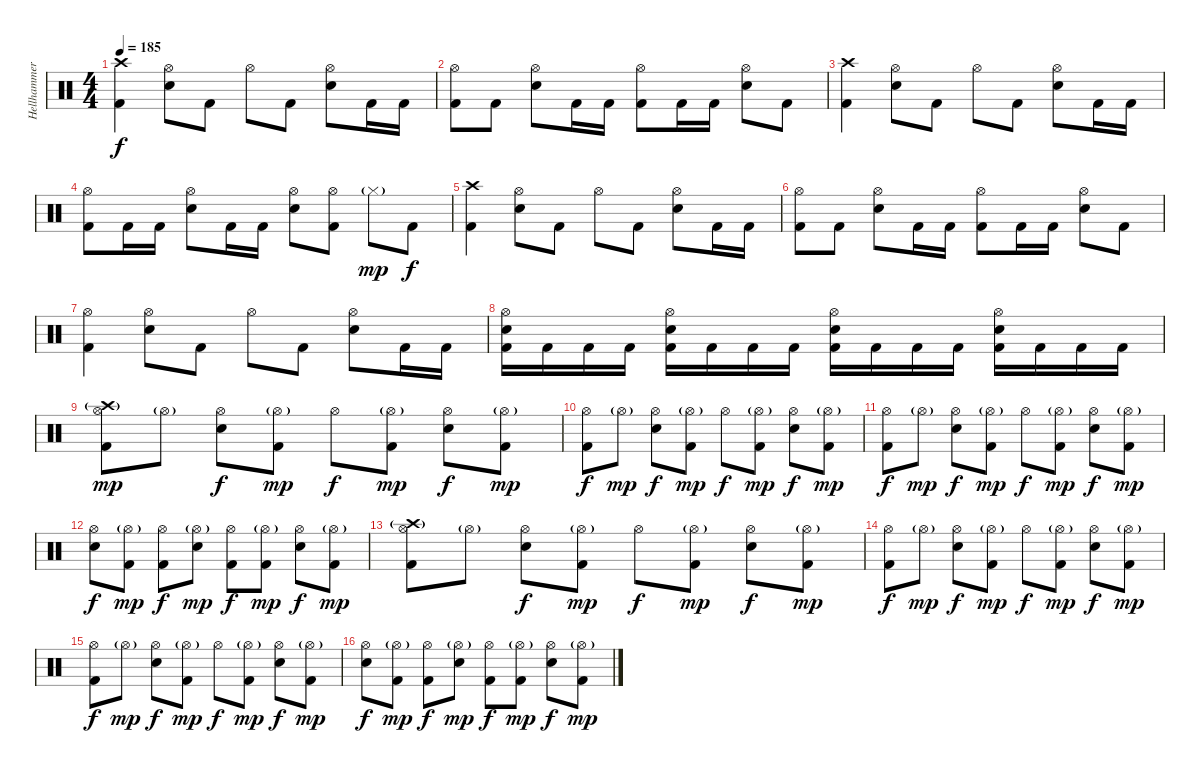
\track ("Hellhammer" "Hellhammer") {instrument percussion}
\staff {score}
\articulation defaults
\ts (4 4)
\tempo 185
\clef neutral
\ks c
("Kick (hit) 2" "Crash high (hit)").4{dy f} ("Electric Snare (hit)" "Hi-Hat (open)").8 "Kick (hit) 2".8 "Hi-Hat (open)".8 "Kick (hit) 2".8 ("Electric Snare (hit)" "Hi-Hat (open)").8 "Kick (hit) 2".16 "Kick (hit) 2".16 |
("Kick (hit) 2" "Hi-Hat (open)").8 "Kick (hit) 2".8 ("Electric Snare (hit)" "Hi-Hat (open)").8 "Kick (hit) 2".16 "Kick (hit) 2".16 ("Kick (hit) 2" "Hi-Hat (open)").8 "Kick (hit) 2".16 "Kick (hit) 2".16 ("Electric Snare (hit)" "Hi-Hat (open)").8 "Kick (hit) 2".8 |
("Kick (hit) 2" "Crash high (hit)").4 ("Electric Snare (hit)" "Hi-Hat (open)").8 "Kick (hit) 2".8 "Hi-Hat (open)".8 "Kick (hit) 2".8 ("Electric Snare (hit)" "Hi-Hat (open)").8 "Kick (hit) 2".16 "Kick (hit) 2".16 |
("Kick (hit) 2" "Hi-Hat (open)").8 "Kick (hit) 2".16 "Kick (hit) 2".16 ("Electric Snare (hit)" "Hi-Hat (open)").8 "Kick (hit) 2".16 "Kick (hit) 2".16 ("Electric Snare (hit)" "Hi-Hat (open)").8 ("Kick (hit) 2" "Hi-Hat (open)").8 "Hi-Hat (closed)"{g}.8{dy mp} "Kick (hit) 2".8{dy f} |
("Kick (hit) 2" "Crash high (hit)").4 ("Electric Snare (hit)" "Hi-Hat (open)").8 "Kick (hit) 2".8 "Hi-Hat (open)".8 "Kick (hit) 2".8 ("Electric Snare (hit)" "Hi-Hat (open)").8 "Kick (hit) 2".16 "Kick (hit) 2".16 |
("Kick (hit) 2" "Hi-Hat (open)").8 "Kick (hit) 2".8 ("Electric Snare (hit)" "Hi-Hat (open)").8 "Kick (hit) 2".16 "Kick (hit) 2".16 ("Kick (hit) 2" "Hi-Hat (open)").8 "Kick (hit) 2".16 "Kick (hit) 2".16 ("Electric Snare (hit)" "Hi-Hat (open)").8 "Kick (hit) 2".8 |
("Kick (hit) 2" "Hi-Hat (open)").4 ("Electric Snare (hit)" "Hi-Hat (open)").8 "Kick (hit) 2".8 "Hi-Hat (open)".8 "Kick (hit) 2".8 ("Electric Snare (hit)" "Hi-Hat (open)").8 "Kick (hit) 2".16 "Kick (hit) 2".16 |
("Kick (hit) 2" "Electric Snare (hit)" "Hi-Hat (open)").16 "Kick (hit) 2".16 "Kick (hit) 2".16 "Kick (hit) 2".16 ("Kick (hit) 2" "Electric Snare (hit)" "Hi-Hat (open)").16 "Kick (hit) 2".16 "Kick (hit) 2".16 "Kick (hit) 2".16 ("Kick (hit) 2" "Electric Snare (hit)" "Hi-Hat (open)").16 "Kick (hit) 2".16 "Kick (hit) 2".16 "Kick (hit) 2".16 ("Kick (hit) 2" "Electric Snare (hit)" "Hi-Hat (open)").16 "Kick (hit) 2".16 "Kick (hit) 2".16 "Kick (hit) 2".16 |
("Kick (hit) 2" "Hi-Hat (open)" "Crash high (hit)"{g}).8{dy mp} "Hi-Hat (open)"{g}.8 ("Electric Snare (hit)" "Hi-Hat (open)").8{dy f} ("Kick (hit) 2" "Hi-Hat (open)"{g}).8{dy mp} "Hi-Hat (open)".8{dy f} ("Kick (hit) 2" "Hi-Hat (open)"{g}).8{dy mp} ("Electric Snare (hit)" "Hi-Hat (open)").8{dy f} ("Kick (hit) 2" "Hi-Hat (open)"{g}).8{dy mp} |
("Kick (hit) 2" "Hi-Hat (open)").8{dy f} "Hi-Hat (open)"{g}.8{dy mp} ("Electric Snare (hit)" "Hi-Hat (open)").8{dy f} ("Kick (hit) 2" "Hi-Hat (open)"{g}).8{dy mp} "Hi-Hat (open)".8{dy f} ("Kick (hit) 2" "Hi-Hat (open)"{g}).8{dy mp} ("Electric Snare (hit)" "Hi-Hat (open)").8{dy f} ("Kick (hit) 2" "Hi-Hat (open)"{g}).8{dy mp} |
("Kick (hit) 2" "Hi-Hat (open)").8{dy f} "Hi-Hat (open)"{g}.8{dy mp} ("Electric Snare (hit)" "Hi-Hat (open)").8{dy f} ("Kick (hit) 2" "Hi-Hat (open)"{g}).8{dy mp} "Hi-Hat (open)".8{dy f} ("Kick (hit) 2" "Hi-Hat (open)"{g}).8{dy mp} ("Electric Snare (hit)" "Hi-Hat (open)").8{dy f} ("Kick (hit) 2" "Hi-Hat (open)"{g}).8{dy mp} |
("Electric Snare (hit)" "Hi-Hat (open)").8{dy f} ("Kick (hit) 2" "Hi-Hat (open)"{g}).8{dy mp} ("Kick (hit) 2" "Hi-Hat (open)").8{dy f} ("Electric Snare (hit)" "Hi-Hat (open)"{g}).8{dy mp} ("Kick (hit) 2" "Hi-Hat (open)").8{dy f} ("Kick (hit) 2" "Hi-Hat (open)"{g}).8{dy mp} ("Electric Snare (hit)" "Hi-Hat (open)").8{dy f} ("Kick (hit) 2" "Hi-Hat (open)"{g}).8{dy mp} |
("Kick (hit) 2" "Hi-Hat (open)" "Crash high (hit)"{g}).8 "Hi-Hat (open)"{g}.8 ("Electric Snare (hit)" "Hi-Hat (open)").8{dy f} ("Kick (hit) 2" "Hi-Hat (open)"{g}).8{dy mp} "Hi-Hat (open)".8{dy f} ("Kick (hit) 2" "Hi-Hat (open)"{g}).8{dy mp} ("Electric Snare (hit)" "Hi-Hat (open)").8{dy f} ("Kick (hit) 2" "Hi-Hat (open)"{g}).8{dy mp} |
("Kick (hit) 2" "Hi-Hat (open)").8{dy f} "Hi-Hat (open)"{g}.8{dy mp} ("Electric Snare (hit)" "Hi-Hat (open)").8{dy f} ("Kick (hit) 2" "Hi-Hat (open)"{g}).8{dy mp} "Hi-Hat (open)".8{dy f} ("Kick (hit) 2" "Hi-Hat (open)"{g}).8{dy mp} ("Electric Snare (hit)" "Hi-Hat (open)").8{dy f} ("Kick (hit) 2" "Hi-Hat (open)"{g}).8{dy mp} |
("Kick (hit) 2" "Hi-Hat (open)").8{dy f} "Hi-Hat (open)"{g}.8{dy mp} ("Electric Snare (hit)" "Hi-Hat (open)").8{dy f} ("Kick (hit) 2" "Hi-Hat (open)"{g}).8{dy mp} "Hi-Hat (open)".8{dy f} ("Kick (hit) 2" "Hi-Hat (open)"{g}).8{dy mp} ("Electric Snare (hit)" "Hi-Hat (open)").8{dy f} ("Kick (hit) 2" "Hi-Hat (open)"{g}).8{dy mp} |
("Electric Snare (hit)" "Hi-Hat (open)").8{dy f} ("Kick (hit) 2" "Hi-Hat (open)"{g}).8{dy mp} ("Kick (hit) 2" "Hi-Hat (open)").8{dy f} ("Electric Snare (hit)" "Hi-Hat (open)"{g}).8{dy mp} ("Kick (hit) 2" "Hi-Hat (open)").8{dy f} ("Kick (hit) 2" "Hi-Hat (open)"{g}).8{dy mp} ("Electric Snare (hit)" "Hi-Hat (open)").8{dy f} ("Kick (hit) 2" "Hi-Hat (open)"{g}).8{dy mp}
